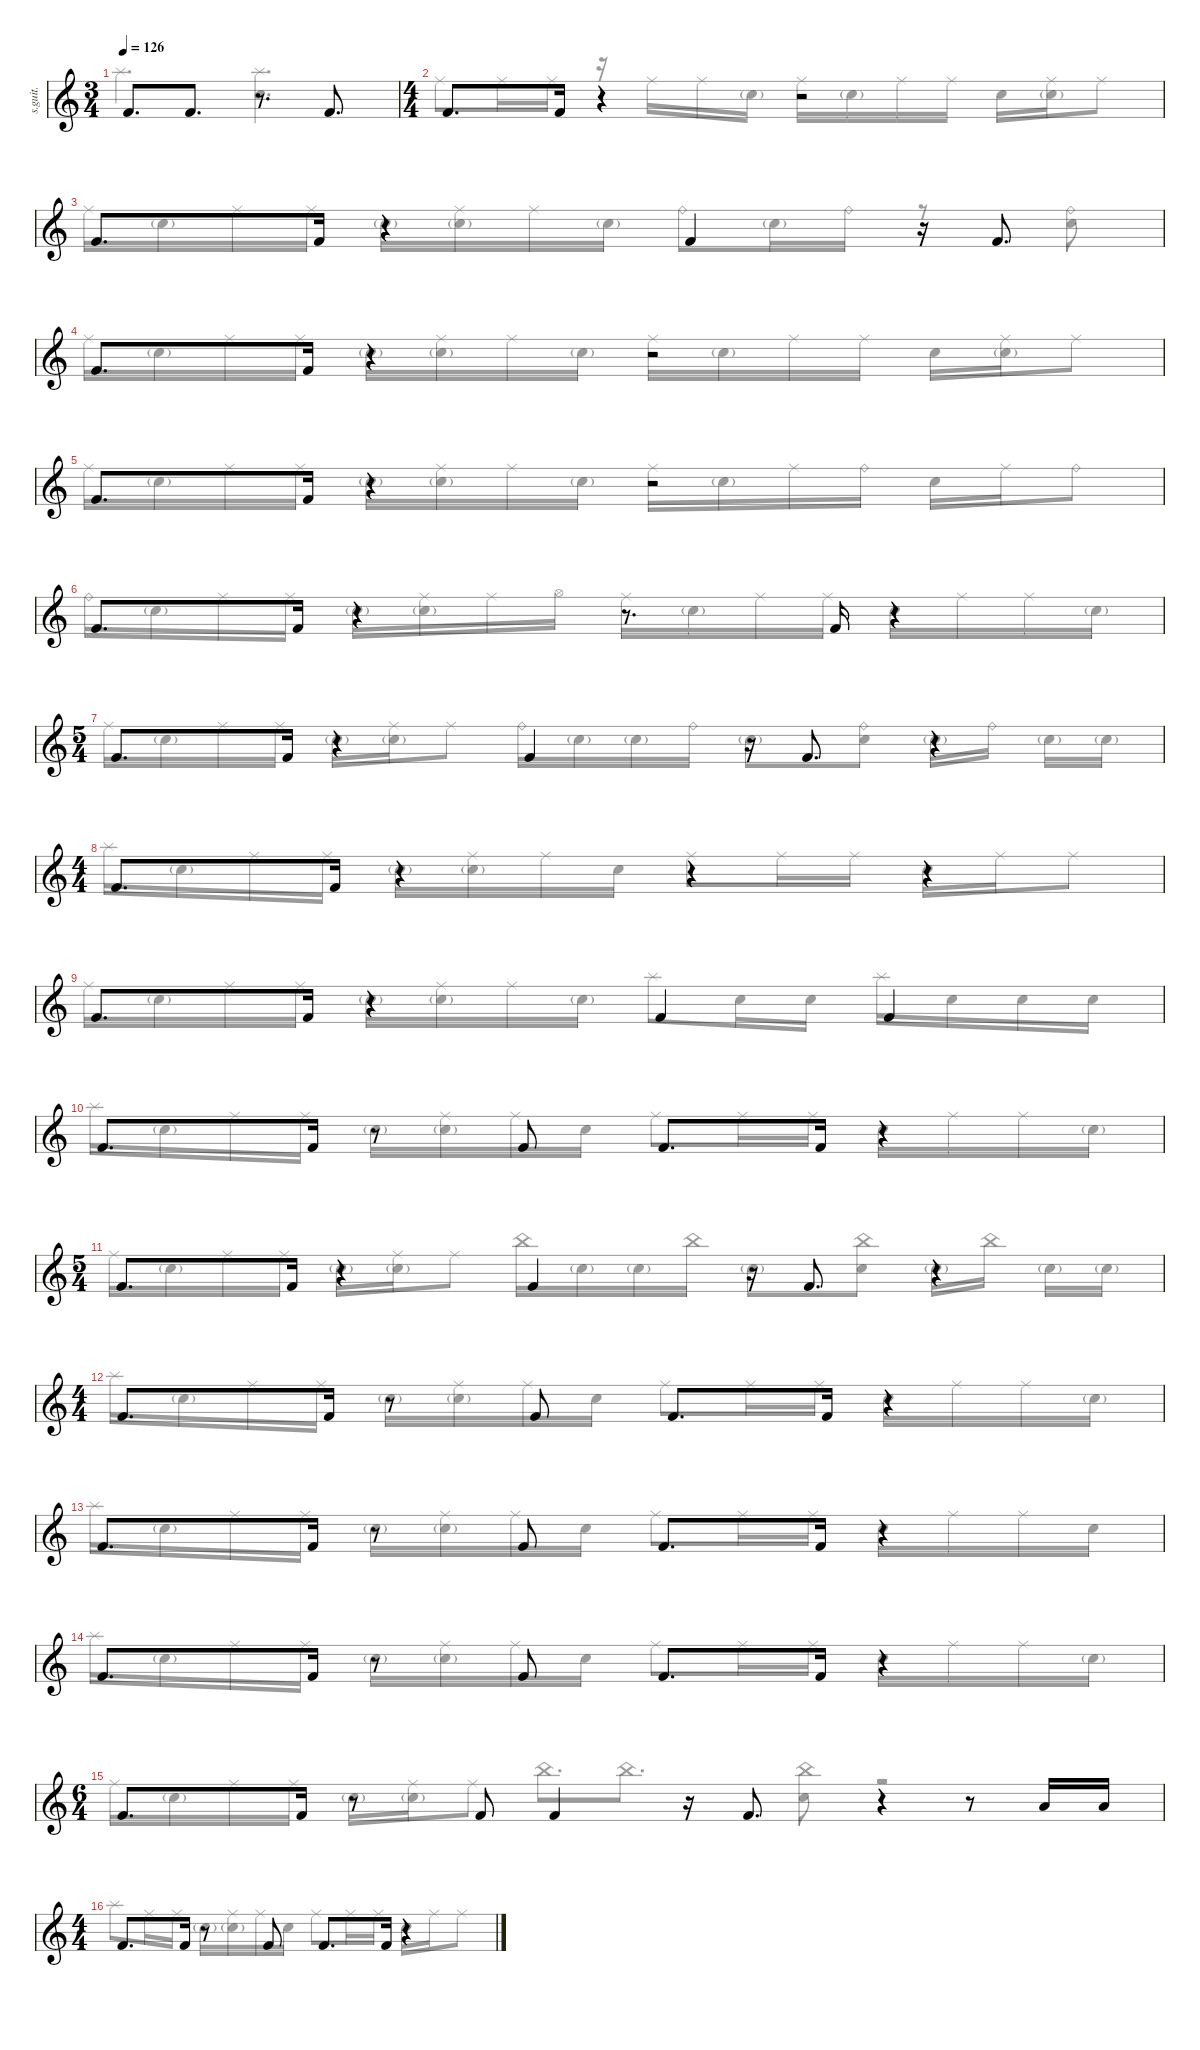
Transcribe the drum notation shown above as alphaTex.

\defaultSystemsLayout 4
\hideDynamics
\bracketExtendMode nobrackets
\track ("Percussion" "s.guit.") {instrument percussion}
\staff {score}
\articulation defaults
\voice
\ts (3 4)
\tempo 126
\clef g2
\ks c "Kick (hit) 2".8{d lyrics (0 "") lyrics (1 "") lyrics (2 "") lyrics (3 "") lyrics (4 "") dy mf} "Kick (hit) 2".8{d lyrics (0 "") lyrics (1 "") lyrics (2 "") lyrics (3 "") lyrics (4 "")}
r.8{d} "Kick (hit) 2".8{d lyrics (0 "") lyrics (1 "") lyrics (2 "") lyrics (3 "") lyrics (4 "")} |
\ts (4 4)
\beaming (8 2 2 2 2)
"Kick (hit) 2".8{d lyrics (0 "") lyrics (1 "") lyrics (2 "") lyrics (3 "") lyrics (4 "")} "Kick (hit) 2".16{lyrics (0 "") lyrics (1 "") lyrics (2 "") lyrics (3 "") lyrics (4 "")} r.4 r.2 |
"Kick (hit) 2".8{d lyrics (0 "") lyrics (1 "") lyrics (2 "") lyrics (3 "") lyrics (4 "")} "Kick (hit) 2".16{lyrics (0 "") lyrics (1 "") lyrics (2 "") lyrics (3 "") lyrics (4 "")} r.4 "Kick (hit) 2".4{lyrics (0 "") lyrics (1 "") lyrics (2 "") lyrics (3 "") lyrics (4 "")} r.16 "Kick (hit) 2".8{d lyrics (0 "") lyrics (1 "") lyrics (2 "") lyrics (3 "") lyrics (4 "")} |
"Kick (hit) 2".8{d lyrics (0 "") lyrics (1 "") lyrics (2 "") lyrics (3 "") lyrics (4 "")} "Kick (hit) 2".16{lyrics (0 "") lyrics (1 "") lyrics (2 "") lyrics (3 "") lyrics (4 "")} r.4 r.2 |
"Kick (hit) 2".8{d lyrics (0 "") lyrics (1 "") lyrics (2 "") lyrics (3 "") lyrics (4 "")} "Kick (hit) 2".16{lyrics (0 "") lyrics (1 "") lyrics (2 "") lyrics (3 "") lyrics (4 "")} r.4 r.2 |
"Kick (hit) 2".8{d lyrics (0 "") lyrics (1 "") lyrics (2 "") lyrics (3 "") lyrics (4 "")} "Kick (hit) 2".16{lyrics (0 "") lyrics (1 "") lyrics (2 "") lyrics (3 "") lyrics (4 "")} r.4 r.8{d} "Kick (hit) 2".16{lyrics (0 "") lyrics (1 "") lyrics (2 "") lyrics (3 "") lyrics (4 "")} r.4 |
\ts (5 4)
\beaming (8 2 2 2 2)
"Kick (hit) 2".8{d lyrics (0 "") lyrics (1 "") lyrics (2 "") lyrics (3 "") lyrics (4 "")} "Kick (hit) 2".16{lyrics (0 "") lyrics (1 "") lyrics (2 "") lyrics (3 "") lyrics (4 "")} r.4 "Kick (hit) 2".4{lyrics (0 "") lyrics (1 "") lyrics (2 "") lyrics (3 "") lyrics (4 "")} r.16 "Kick (hit) 2".8{d lyrics (0 "") lyrics (1 "") lyrics (2 "") lyrics (3 "") lyrics (4 "")} r.4 |
\ts (4 4)
\beaming (8 2 2 2 2)
"Kick (hit) 2".8{d lyrics (0 "") lyrics (1 "") lyrics (2 "") lyrics (3 "") lyrics (4 "")} "Kick (hit) 2".16{lyrics (0 "") lyrics (1 "") lyrics (2 "") lyrics (3 "") lyrics (4 "")} r.4 r.4 r.4 |
"Kick (hit) 2".8{d lyrics (0 "") lyrics (1 "") lyrics (2 "") lyrics (3 "") lyrics (4 "")} "Kick (hit) 2".16{lyrics (0 "") lyrics (1 "") lyrics (2 "") lyrics (3 "") lyrics (4 "")} r.4 "Kick (hit) 2".4{lyrics (0 "") lyrics (1 "") lyrics (2 "") lyrics (3 "") lyrics (4 "")} "Kick (hit) 2".4{lyrics (0 "") lyrics (1 "") lyrics (2 "") lyrics (3 "") lyrics (4 "")} |
"Kick (hit) 2".8{d lyrics (0 "") lyrics (1 "") lyrics (2 "") lyrics (3 "") lyrics (4 "")} "Kick (hit) 2".16{lyrics (0 "") lyrics (1 "") lyrics (2 "") lyrics (3 "") lyrics (4 "")} r.8 "Kick (hit) 2".8{lyrics (0 "") lyrics (1 "") lyrics (2 "") lyrics (3 "") lyrics (4 "")} "Kick (hit) 2".8{d lyrics (0 "") lyrics (1 "") lyrics (2 "") lyrics (3 "") lyrics (4 "")} "Kick (hit) 2".16{lyrics (0 "") lyrics (1 "") lyrics (2 "") lyrics (3 "") lyrics (4 "")} r.4 |
\ts (5 4)
\beaming (8 2 2 2 2)
"Kick (hit) 2".8{d lyrics (0 "") lyrics (1 "") lyrics (2 "") lyrics (3 "") lyrics (4 "")} "Kick (hit) 2".16{lyrics (0 "") lyrics (1 "") lyrics (2 "") lyrics (3 "") lyrics (4 "")} r.4 "Kick (hit) 2".4{lyrics (0 "") lyrics (1 "") lyrics (2 "") lyrics (3 "") lyrics (4 "")} r.16 "Kick (hit) 2".8{d lyrics (0 "") lyrics (1 "") lyrics (2 "") lyrics (3 "") lyrics (4 "")} r.4 |
\ts (4 4)
\beaming (8 2 2 2 2)
"Kick (hit) 2".8{d lyrics (0 "") lyrics (1 "") lyrics (2 "") lyrics (3 "") lyrics (4 "")} "Kick (hit) 2".16{lyrics (0 "") lyrics (1 "") lyrics (2 "") lyrics (3 "") lyrics (4 "")} r.8 "Kick (hit) 2".8{lyrics (0 "") lyrics (1 "") lyrics (2 "") lyrics (3 "") lyrics (4 "")} "Kick (hit) 2".8{d lyrics (0 "") lyrics (1 "") lyrics (2 "") lyrics (3 "") lyrics (4 "")} "Kick (hit) 2".16{lyrics (0 "") lyrics (1 "") lyrics (2 "") lyrics (3 "") lyrics (4 "")} r.4 |
"Kick (hit) 2".8{d lyrics (0 "") lyrics (1 "") lyrics (2 "") lyrics (3 "") lyrics (4 "")} "Kick (hit) 2".16{lyrics (0 "") lyrics (1 "") lyrics (2 "") lyrics (3 "") lyrics (4 "")} r.8 "Kick (hit) 2".8{lyrics (0 "") lyrics (1 "") lyrics (2 "") lyrics (3 "") lyrics (4 "")} "Kick (hit) 2".8{d lyrics (0 "") lyrics (1 "") lyrics (2 "") lyrics (3 "") lyrics (4 "")} "Kick (hit) 2".16{lyrics (0 "") lyrics (1 "") lyrics (2 "") lyrics (3 "") lyrics (4 "")} r.4 |
"Kick (hit) 2".8{d lyrics (0 "") lyrics (1 "") lyrics (2 "") lyrics (3 "") lyrics (4 "")} "Kick (hit) 2".16{lyrics (0 "") lyrics (1 "") lyrics (2 "") lyrics (3 "") lyrics (4 "")} r.8 "Kick (hit) 2".8{lyrics (0 "") lyrics (1 "") lyrics (2 "") lyrics (3 "") lyrics (4 "")} "Kick (hit) 2".8{d lyrics (0 "") lyrics (1 "") lyrics (2 "") lyrics (3 "") lyrics (4 "")} "Kick (hit) 2".16{lyrics (0 "") lyrics (1 "") lyrics (2 "") lyrics (3 "") lyrics (4 "")} r.4 |
\ts (6 4)
\beaming (8 2 2 2 2)
"Kick (hit) 2".8{d lyrics (0 "") lyrics (1 "") lyrics (2 "") lyrics (3 "") lyrics (4 "")} "Kick (hit) 2".16{lyrics (0 "") lyrics (1 "") lyrics (2 "") lyrics (3 "") lyrics (4 "")} r.8 "Kick (hit) 2".8{lyrics (0 "") lyrics (1 "") lyrics (2 "") lyrics (3 "") lyrics (4 "")} "Kick (hit) 2".4{lyrics (0 "") lyrics (1 "") lyrics (2 "") lyrics (3 "") lyrics (4 "")} r.16 "Kick (hit) 2".8{d lyrics (0 "") lyrics (1 "") lyrics (2 "") lyrics (3 "") lyrics (4 "")} r.4 r.8 "Low Tom (hit)".16{lyrics (0 "") lyrics (1 "") lyrics (2 "") lyrics (3 "") lyrics (4 "")} "Low Tom (hit)".16{lyrics (0 "") lyrics (1 "") lyrics (2 "") lyrics (3 "") lyrics (4 "")} |
\ts (4 4)
\beaming (8 2 2 2 2)
"Kick (hit) 2".8{d lyrics (0 "") lyrics (1 "") lyrics (2 "") lyrics (3 "") lyrics (4 "")} "Kick (hit) 2".16{lyrics (0 "") lyrics (1 "") lyrics (2 "") lyrics (3 "") lyrics (4 "")} r.8 "Kick (hit) 2".8{lyrics (0 "") lyrics (1 "") lyrics (2 "") lyrics (3 "") lyrics (4 "")} "Kick (hit) 2".8{d lyrics (0 "") lyrics (1 "") lyrics (2 "") lyrics (3 "") lyrics (4 "")} "Kick (hit) 2".16{lyrics (0 "") lyrics (1 "") lyrics (2 "") lyrics (3 "") lyrics (4 "")} r.4
\voice
\clef g2
\ottava regular
\simile none
\ks c "Splash (hit)".4{d lyrics (0 "") lyrics (1 "") lyrics (2 "") lyrics (3 "") lyrics (4 "") dy mf}
("Splash (hit)" "Snare (hit) 2").4{d lyrics (0 "") lyrics (1 "") lyrics (2 "") lyrics (3 "") lyrics (4 "")} |
"Ride (middle)".8{lyrics (0 "") lyrics (1 "") lyrics (2 "") lyrics (3 "") lyrics (4 "")} "Ride (middle)".16{lyrics (0 "") lyrics (1 "") lyrics (2 "") lyrics (3 "") lyrics (4 "")} "Ride (middle)".16{lyrics (0 "") lyrics (1 "") lyrics (2 "") lyrics (3 "") lyrics (4 "")} r.16 "Ride (middle)".16{lyrics (0 "") lyrics (1 "") lyrics (2 "") lyrics (3 "") lyrics (4 "")} "Ride (middle)".16{lyrics (0 "") lyrics (1 "") lyrics (2 "") lyrics (3 "") lyrics (4 "")} "Snare (hit) 2"{g}.16{lyrics (0 "") lyrics (1 "") lyrics (2 "") lyrics (3 "") lyrics (4 "")} "Ride (middle)".16{lyrics (0 "") lyrics (1 "") lyrics (2 "") lyrics (3 "") lyrics (4 "")} "Snare (hit) 2"{g}.16{lyrics (0 "") lyrics (1 "") lyrics (2 "") lyrics (3 "") lyrics (4 "")} "Ride (middle)".16{lyrics (0 "") lyrics (1 "") lyrics (2 "") lyrics (3 "") lyrics (4 "")} "Ride (middle)".16{lyrics (0 "") lyrics (1 "") lyrics (2 "") lyrics (3 "") lyrics (4 "")} "Snare (hit) 2".16{lyrics (0 "") lyrics (1 "") lyrics (2 "") lyrics (3 "") lyrics (4 "")} ("Ride (middle)" "Snare (hit) 2"{g}).16{lyrics (0 "") lyrics (1 "") lyrics (2 "") lyrics (3 "") lyrics (4 "")} "Ride (middle)".8{lyrics (0 "") lyrics (1 "") lyrics (2 "") lyrics (3 "") lyrics (4 "")} |
"Ride (middle)".16{lyrics (0 "") lyrics (1 "") lyrics (2 "") lyrics (3 "") lyrics (4 "")} "Snare (hit) 2"{g}.16{lyrics (0 "") lyrics (1 "") lyrics (2 "") lyrics (3 "") lyrics (4 "")} "Ride (middle)".16{lyrics (0 "") lyrics (1 "") lyrics (2 "") lyrics (3 "") lyrics (4 "")} "Ride (middle)".16{lyrics (0 "") lyrics (1 "") lyrics (2 "") lyrics (3 "") lyrics (4 "")} "Snare (hit) 2"{g}.16{lyrics (0 "") lyrics (1 "") lyrics (2 "") lyrics (3 "") lyrics (4 "")} ("Ride (middle)" "Snare (hit) 2"{g}).16{lyrics (0 "") lyrics (1 "") lyrics (2 "") lyrics (3 "") lyrics (4 "")} "Ride (middle)".16{lyrics (0 "") lyrics (1 "") lyrics (2 "") lyrics (3 "") lyrics (4 "")} "Snare (hit) 2"{g}.16{lyrics (0 "") lyrics (1 "") lyrics (2 "") lyrics (3 "") lyrics (4 "")} "Ride (bell)".8{lyrics (0 "") lyrics (1 "") lyrics (2 "") lyrics (3 "") lyrics (4 "")} "Snare (hit) 2"{g}.16{lyrics (0 "") lyrics (1 "") lyrics (2 "") lyrics (3 "") lyrics (4 "")} "Ride (bell)".16{lyrics (0 "") lyrics (1 "") lyrics (2 "") lyrics (3 "") lyrics (4 "")} r.8 ("Ride (bell)" "Snare (hit) 2").8{lyrics (0 "") lyrics (1 "") lyrics (2 "") lyrics (3 "") lyrics (4 "")} |
"Ride (middle)".16{lyrics (0 "") lyrics (1 "") lyrics (2 "") lyrics (3 "") lyrics (4 "")} "Snare (hit) 2"{g}.16{lyrics (0 "") lyrics (1 "") lyrics (2 "") lyrics (3 "") lyrics (4 "")} "Ride (middle)".16{lyrics (0 "") lyrics (1 "") lyrics (2 "") lyrics (3 "") lyrics (4 "")} "Ride (middle)".16{lyrics (0 "") lyrics (1 "") lyrics (2 "") lyrics (3 "") lyrics (4 "")} "Snare (hit) 2"{g}.16{lyrics (0 "") lyrics (1 "") lyrics (2 "") lyrics (3 "") lyrics (4 "")} ("Ride (middle)" "Snare (hit) 2"{g}).16{lyrics (0 "") lyrics (1 "") lyrics (2 "") lyrics (3 "") lyrics (4 "")} "Ride (middle)".16{lyrics (0 "") lyrics (1 "") lyrics (2 "") lyrics (3 "") lyrics (4 "")} "Snare (hit) 2"{g}.16{lyrics (0 "") lyrics (1 "") lyrics (2 "") lyrics (3 "") lyrics (4 "")} "Ride (middle)".16{lyrics (0 "") lyrics (1 "") lyrics (2 "") lyrics (3 "") lyrics (4 "")} "Snare (hit) 2"{g}.16{lyrics (0 "") lyrics (1 "") lyrics (2 "") lyrics (3 "") lyrics (4 "")} "Ride (middle)".16{lyrics (0 "") lyrics (1 "") lyrics (2 "") lyrics (3 "") lyrics (4 "")} "Ride (middle)".16{lyrics (0 "") lyrics (1 "") lyrics (2 "") lyrics (3 "") lyrics (4 "")} "Snare (hit) 2".16{lyrics (0 "") lyrics (1 "") lyrics (2 "") lyrics (3 "") lyrics (4 "")} ("Ride (middle)" "Snare (hit) 2"{g}).16{lyrics (0 "") lyrics (1 "") lyrics (2 "") lyrics (3 "") lyrics (4 "")} "Ride (middle)".8{lyrics (0 "") lyrics (1 "") lyrics (2 "") lyrics (3 "") lyrics (4 "")} |
"Ride (middle)".16{lyrics (0 "") lyrics (1 "") lyrics (2 "") lyrics (3 "") lyrics (4 "")} "Snare (hit) 2"{g}.16{lyrics (0 "") lyrics (1 "") lyrics (2 "") lyrics (3 "") lyrics (4 "")} "Ride (middle)".16{lyrics (0 "") lyrics (1 "") lyrics (2 "") lyrics (3 "") lyrics (4 "")} "Ride (middle)".16{lyrics (0 "") lyrics (1 "") lyrics (2 "") lyrics (3 "") lyrics (4 "")} "Snare (hit) 2"{g}.16{lyrics (0 "") lyrics (1 "") lyrics (2 "") lyrics (3 "") lyrics (4 "")} ("Ride (middle)" "Snare (hit) 2"{g}).16{lyrics (0 "") lyrics (1 "") lyrics (2 "") lyrics (3 "") lyrics (4 "")} "Ride (middle)".16{lyrics (0 "") lyrics (1 "") lyrics (2 "") lyrics (3 "") lyrics (4 "")} "Snare (hit) 2"{g}.16{lyrics (0 "") lyrics (1 "") lyrics (2 "") lyrics (3 "") lyrics (4 "")} "Ride (middle)".16{lyrics (0 "") lyrics (1 "") lyrics (2 "") lyrics (3 "") lyrics (4 "")} "Snare (hit) 2"{g}.16{lyrics (0 "") lyrics (1 "") lyrics (2 "") lyrics (3 "") lyrics (4 "")} "Ride (middle)".16{lyrics (0 "") lyrics (1 "") lyrics (2 "") lyrics (3 "") lyrics (4 "")} "Ride (bell)".16{lyrics (0 "") lyrics (1 "") lyrics (2 "") lyrics (3 "") lyrics (4 "")} "Snare (hit) 2".16{lyrics (0 "") lyrics (1 "") lyrics (2 "") lyrics (3 "") lyrics (4 "")} "Ride (middle)".16{lyrics (0 "") lyrics (1 "") lyrics (2 "") lyrics (3 "") lyrics (4 "")} "Ride (bell)".8{lyrics (0 "") lyrics (1 "") lyrics (2 "") lyrics (3 "") lyrics (4 "")} |
"Ride (bell)".16{lyrics (0 "") lyrics (1 "") lyrics (2 "") lyrics (3 "") lyrics (4 "")} "Snare (hit) 2"{g}.16{lyrics (0 "") lyrics (1 "") lyrics (2 "") lyrics (3 "") lyrics (4 "")} "Ride (middle)".16{lyrics (0 "") lyrics (1 "") lyrics (2 "") lyrics (3 "") lyrics (4 "")} "Ride (middle)".16{lyrics (0 "") lyrics (1 "") lyrics (2 "") lyrics (3 "") lyrics (4 "")} "Snare (hit) 2"{g}.16{lyrics (0 "") lyrics (1 "") lyrics (2 "") lyrics (3 "") lyrics (4 "")} ("Snare (hit) 2"{g} "Ride (middle)").16{lyrics (0 "") lyrics (1 "") lyrics (2 "") lyrics (3 "") lyrics (4 "")} "Ride (middle)".16{lyrics (0 "") lyrics (1 "") lyrics (2 "") lyrics (3 "") lyrics (4 "")} "Hi-Hat (open)".16{lyrics (0 "") lyrics (1 "") lyrics (2 "") lyrics (3 "") lyrics (4 "")} "Ride (middle)".16{lyrics (0 "") lyrics (1 "") lyrics (2 "") lyrics (3 "") lyrics (4 "")} "Snare (hit) 2"{g}.16{lyrics (0 "") lyrics (1 "") lyrics (2 "") lyrics (3 "") lyrics (4 "")} "Ride (middle)".16{lyrics (0 "") lyrics (1 "") lyrics (2 "") lyrics (3 "") lyrics (4 "")} "Ride (middle)".16{lyrics (0 "") lyrics (1 "") lyrics (2 "") lyrics (3 "") lyrics (4 "")} "Snare (hit) 2".16{lyrics (0 "") lyrics (1 "") lyrics (2 "") lyrics (3 "") lyrics (4 "")} "Ride (middle)".16{lyrics (0 "") lyrics (1 "") lyrics (2 "") lyrics (3 "") lyrics (4 "")} "Ride (middle)".16{lyrics (0 "") lyrics (1 "") lyrics (2 "") lyrics (3 "") lyrics (4 "")} "Snare (hit) 2"{g}.16{lyrics (0 "") lyrics (1 "") lyrics (2 "") lyrics (3 "") lyrics (4 "")} |
"Ride (middle)".16{lyrics (0 "") lyrics (1 "") lyrics (2 "") lyrics (3 "") lyrics (4 "")} "Snare (hit) 2"{g}.16{lyrics (0 "") lyrics (1 "") lyrics (2 "") lyrics (3 "") lyrics (4 "")} "Ride (middle)".16{lyrics (0 "") lyrics (1 "") lyrics (2 "") lyrics (3 "") lyrics (4 "")} "Ride (middle)".16{lyrics (0 "") lyrics (1 "") lyrics (2 "") lyrics (3 "") lyrics (4 "")} "Snare (hit) 2"{g}.16{lyrics (0 "") lyrics (1 "") lyrics (2 "") lyrics (3 "") lyrics (4 "")} ("Ride (middle)" "Snare (hit) 2"{g}).16{lyrics (0 "") lyrics (1 "") lyrics (2 "") lyrics (3 "") lyrics (4 "")} "Ride (middle)".8{lyrics (0 "") lyrics (1 "") lyrics (2 "") lyrics (3 "") lyrics (4 "")} "Ride (bell)".16{lyrics (0 "") lyrics (1 "") lyrics (2 "") lyrics (3 "") lyrics (4 "")} "Snare (hit) 2"{g}.16{lyrics (0 "") lyrics (1 "") lyrics (2 "") lyrics (3 "") lyrics (4 "")} "Snare (hit) 2"{g}.16{lyrics (0 "") lyrics (1 "") lyrics (2 "") lyrics (3 "") lyrics (4 "")} "Ride (bell)".16{lyrics (0 "") lyrics (1 "") lyrics (2 "") lyrics (3 "") lyrics (4 "")} "Snare (hit) 2"{g}.8{lyrics (0 "") lyrics (1 "") lyrics (2 "") lyrics (3 "") lyrics (4 "")} ("Ride (bell)" "Snare (hit) 2").8{lyrics (0 "") lyrics (1 "") lyrics (2 "") lyrics (3 "") lyrics (4 "")} "Snare (hit) 2"{g}.16{lyrics (0 "") lyrics (1 "") lyrics (2 "") lyrics (3 "") lyrics (4 "")} "Ride (bell)".16{lyrics (0 "") lyrics (1 "") lyrics (2 "") lyrics (3 "") lyrics (4 "")} "Snare (hit) 2"{g}.16{lyrics (0 "") lyrics (1 "") lyrics (2 "") lyrics (3 "") lyrics (4 "")} "Snare (hit) 2"{g}.16{lyrics (0 "") lyrics (1 "") lyrics (2 "") lyrics (3 "") lyrics (4 "")} |
"Splash (hit)".16{lyrics (0 "") lyrics (1 "") lyrics (2 "") lyrics (3 "") lyrics (4 "")} "Snare (hit) 2"{g}.16{lyrics (0 "") lyrics (1 "") lyrics (2 "") lyrics (3 "") lyrics (4 "")} "Ride (middle)".16{lyrics (0 "") lyrics (1 "") lyrics (2 "") lyrics (3 "") lyrics (4 "")} "Ride (middle)".16{lyrics (0 "") lyrics (1 "") lyrics (2 "") lyrics (3 "") lyrics (4 "")} "Snare (hit) 2"{g}.16{lyrics (0 "") lyrics (1 "") lyrics (2 "") lyrics (3 "") lyrics (4 "")} ("Ride (middle)" "Snare (hit) 2"{g}).16{lyrics (0 "") lyrics (1 "") lyrics (2 "") lyrics (3 "") lyrics (4 "")} "Ride (middle)".16{lyrics (0 "") lyrics (1 "") lyrics (2 "") lyrics (3 "") lyrics (4 "")} "Snare (hit) 2".16{lyrics (0 "") lyrics (1 "") lyrics (2 "") lyrics (3 "") lyrics (4 "")} "Ride (middle)".8{lyrics (0 "") lyrics (1 "") lyrics (2 "") lyrics (3 "") lyrics (4 "")} "Ride (middle)".16{lyrics (0 "") lyrics (1 "") lyrics (2 "") lyrics (3 "") lyrics (4 "")} "Ride (middle)".16{lyrics (0 "") lyrics (1 "") lyrics (2 "") lyrics (3 "") lyrics (4 "")} "Snare (hit) 2".16{lyrics (0 "") lyrics (1 "") lyrics (2 "") lyrics (3 "") lyrics (4 "")} "Ride (middle)".16{lyrics (0 "") lyrics (1 "") lyrics (2 "") lyrics (3 "") lyrics (4 "")} "Ride (middle)".8{lyrics (0 "") lyrics (1 "") lyrics (2 "") lyrics (3 "") lyrics (4 "")} |
"Ride (middle)".16{lyrics (0 "") lyrics (1 "") lyrics (2 "") lyrics (3 "") lyrics (4 "")} "Snare (hit) 2"{g}.16{lyrics (0 "") lyrics (1 "") lyrics (2 "") lyrics (3 "") lyrics (4 "")} "Ride (middle)".16{lyrics (0 "") lyrics (1 "") lyrics (2 "") lyrics (3 "") lyrics (4 "")} "Ride (middle)".16{lyrics (0 "") lyrics (1 "") lyrics (2 "") lyrics (3 "") lyrics (4 "")} "Snare (hit) 2"{g}.16{lyrics (0 "") lyrics (1 "") lyrics (2 "") lyrics (3 "") lyrics (4 "")} ("Ride (middle)" "Snare (hit) 2"{g}).16{lyrics (0 "") lyrics (1 "") lyrics (2 "") lyrics (3 "") lyrics (4 "")} "Ride (middle)".16{lyrics (0 "") lyrics (1 "") lyrics (2 "") lyrics (3 "") lyrics (4 "")} "Snare (hit) 2"{g}.16{lyrics (0 "") lyrics (1 "") lyrics (2 "") lyrics (3 "") lyrics (4 "")} "Splash (hit)".8{lyrics (0 "") lyrics (1 "") lyrics (2 "") lyrics (3 "") lyrics (4 "")} "Snare (hit) 2".16{lyrics (0 "") lyrics (1 "") lyrics (2 "") lyrics (3 "") lyrics (4 "")} "Snare (hit) 2".16{lyrics (0 "") lyrics (1 "") lyrics (2 "") lyrics (3 "") lyrics (4 "")} "Splash (hit)".16{lyrics (0 "") lyrics (1 "") lyrics (2 "") lyrics (3 "") lyrics (4 "")} "Snare (hit) 2".16{lyrics (0 "") lyrics (1 "") lyrics (2 "") lyrics (3 "") lyrics (4 "")} "Snare (hit) 2".16{lyrics (0 "") lyrics (1 "") lyrics (2 "") lyrics (3 "") lyrics (4 "")} "Snare (hit) 2".16{lyrics (0 "") lyrics (1 "") lyrics (2 "") lyrics (3 "") lyrics (4 "")} |
"Splash (hit)".16{lyrics (0 "") lyrics (1 "") lyrics (2 "") lyrics (3 "") lyrics (4 "")} "Snare (hit) 2"{g}.16{lyrics (0 "") lyrics (1 "") lyrics (2 "") lyrics (3 "") lyrics (4 "")} "Ride (middle)".16{lyrics (0 "") lyrics (1 "") lyrics (2 "") lyrics (3 "") lyrics (4 "")} "Ride (middle)".16{lyrics (0 "") lyrics (1 "") lyrics (2 "") lyrics (3 "") lyrics (4 "")} "Snare (hit) 2"{g}.16{lyrics (0 "") lyrics (1 "") lyrics (2 "") lyrics (3 "") lyrics (4 "")} ("Ride (middle)" "Snare (hit) 2"{g}).16{lyrics (0 "") lyrics (1 "") lyrics (2 "") lyrics (3 "") lyrics (4 "")} "Ride (middle)".16{lyrics (0 "") lyrics (1 "") lyrics (2 "") lyrics (3 "") lyrics (4 "")} "Snare (hit) 2".16{lyrics (0 "") lyrics (1 "") lyrics (2 "") lyrics (3 "") lyrics (4 "")} "Ride (middle)".8{lyrics (0 "") lyrics (1 "") lyrics (2 "") lyrics (3 "") lyrics (4 "")} "Ride (middle)".16{lyrics (0 "") lyrics (1 "") lyrics (2 "") lyrics (3 "") lyrics (4 "")} "Ride (middle)".16{lyrics (0 "") lyrics (1 "") lyrics (2 "") lyrics (3 "") lyrics (4 "")} "Snare (hit) 2".16{lyrics (0 "") lyrics (1 "") lyrics (2 "") lyrics (3 "") lyrics (4 "")} "Ride (middle)".16{lyrics (0 "") lyrics (1 "") lyrics (2 "") lyrics (3 "") lyrics (4 "")} "Ride (middle)".16{lyrics (0 "") lyrics (1 "") lyrics (2 "") lyrics (3 "") lyrics (4 "")} "Snare (hit) 2"{g}.16{lyrics (0 "") lyrics (1 "") lyrics (2 "") lyrics (3 "") lyrics (4 "")} |
"Ride (middle)".16{lyrics (0 "") lyrics (1 "") lyrics (2 "") lyrics (3 "") lyrics (4 "")} "Snare (hit) 2"{g}.16{lyrics (0 "") lyrics (1 "") lyrics (2 "") lyrics (3 "") lyrics (4 "")} "Ride (middle)".16{lyrics (0 "") lyrics (1 "") lyrics (2 "") lyrics (3 "") lyrics (4 "")} "Ride (middle)".16{lyrics (0 "") lyrics (1 "") lyrics (2 "") lyrics (3 "") lyrics (4 "")} "Snare (hit) 2"{g}.16{lyrics (0 "") lyrics (1 "") lyrics (2 "") lyrics (3 "") lyrics (4 "")} ("Ride (middle)" "Snare (hit) 2"{g}).16{lyrics (0 "") lyrics (1 "") lyrics (2 "") lyrics (3 "") lyrics (4 "")} "Ride (middle)".8{lyrics (0 "") lyrics (1 "") lyrics (2 "") lyrics (3 "") lyrics (4 "")} "China (hit)".16{lyrics (0 "") lyrics (1 "") lyrics (2 "") lyrics (3 "") lyrics (4 "")} "Snare (hit) 2"{g}.16{lyrics (0 "") lyrics (1 "") lyrics (2 "") lyrics (3 "") lyrics (4 "")} "Snare (hit) 2"{g}.16{lyrics (0 "") lyrics (1 "") lyrics (2 "") lyrics (3 "") lyrics (4 "")} "China (hit)".16{lyrics (0 "") lyrics (1 "") lyrics (2 "") lyrics (3 "") lyrics (4 "")} "Snare (hit) 2"{g}.8{lyrics (0 "") lyrics (1 "") lyrics (2 "") lyrics (3 "") lyrics (4 "")} ("China (hit)" "Snare (hit) 2").8{lyrics (0 "") lyrics (1 "") lyrics (2 "") lyrics (3 "") lyrics (4 "")} "Snare (hit) 2"{g}.16{lyrics (0 "") lyrics (1 "") lyrics (2 "") lyrics (3 "") lyrics (4 "")} "China (hit)".16{lyrics (0 "") lyrics (1 "") lyrics (2 "") lyrics (3 "") lyrics (4 "")} "Snare (hit) 2"{g}.16{lyrics (0 "") lyrics (1 "") lyrics (2 "") lyrics (3 "") lyrics (4 "")} "Snare (hit) 2"{g}.16{lyrics (0 "") lyrics (1 "") lyrics (2 "") lyrics (3 "") lyrics (4 "")} |
"Splash (hit)".16{lyrics (0 "") lyrics (1 "") lyrics (2 "") lyrics (3 "") lyrics (4 "")} "Snare (hit) 2"{g}.16{lyrics (0 "") lyrics (1 "") lyrics (2 "") lyrics (3 "") lyrics (4 "")} "Ride (middle)".16{lyrics (0 "") lyrics (1 "") lyrics (2 "") lyrics (3 "") lyrics (4 "")} "Ride (middle)".16{lyrics (0 "") lyrics (1 "") lyrics (2 "") lyrics (3 "") lyrics (4 "")} "Snare (hit) 2"{g}.16{lyrics (0 "") lyrics (1 "") lyrics (2 "") lyrics (3 "") lyrics (4 "")} ("Ride (middle)" "Snare (hit) 2"{g}).16{lyrics (0 "") lyrics (1 "") lyrics (2 "") lyrics (3 "") lyrics (4 "")} "Ride (middle)".16{lyrics (0 "") lyrics (1 "") lyrics (2 "") lyrics (3 "") lyrics (4 "")} "Snare (hit) 2".16{lyrics (0 "") lyrics (1 "") lyrics (2 "") lyrics (3 "") lyrics (4 "")} "Ride (middle)".8{lyrics (0 "") lyrics (1 "") lyrics (2 "") lyrics (3 "") lyrics (4 "")} "Ride (middle)".16{lyrics (0 "") lyrics (1 "") lyrics (2 "") lyrics (3 "") lyrics (4 "")} "Ride (middle)".16{lyrics (0 "") lyrics (1 "") lyrics (2 "") lyrics (3 "") lyrics (4 "")} "Snare (hit) 2".16{lyrics (0 "") lyrics (1 "") lyrics (2 "") lyrics (3 "") lyrics (4 "")} "Ride (middle)".16{lyrics (0 "") lyrics (1 "") lyrics (2 "") lyrics (3 "") lyrics (4 "")} "Ride (middle)".16{lyrics (0 "") lyrics (1 "") lyrics (2 "") lyrics (3 "") lyrics (4 "")} "Snare (hit) 2"{g}.16{lyrics (0 "") lyrics (1 "") lyrics (2 "") lyrics (3 "") lyrics (4 "")} |
"Splash (hit)".16{lyrics (0 "") lyrics (1 "") lyrics (2 "") lyrics (3 "") lyrics (4 "")} "Snare (hit) 2"{g}.16{lyrics (0 "") lyrics (1 "") lyrics (2 "") lyrics (3 "") lyrics (4 "")} "Ride (middle)".16{lyrics (0 "") lyrics (1 "") lyrics (2 "") lyrics (3 "") lyrics (4 "")} "Ride (middle)".16{lyrics (0 "") lyrics (1 "") lyrics (2 "") lyrics (3 "") lyrics (4 "")} "Snare (hit) 2"{g}.16{lyrics (0 "") lyrics (1 "") lyrics (2 "") lyrics (3 "") lyrics (4 "")} ("Ride (middle)" "Snare (hit) 2"{g}).16{lyrics (0 "") lyrics (1 "") lyrics (2 "") lyrics (3 "") lyrics (4 "")} "Ride (middle)".16{lyrics (0 "") lyrics (1 "") lyrics (2 "") lyrics (3 "") lyrics (4 "")} "Snare (hit) 2".16{lyrics (0 "") lyrics (1 "") lyrics (2 "") lyrics (3 "") lyrics (4 "")} "Ride (middle)".8{lyrics (0 "") lyrics (1 "") lyrics (2 "") lyrics (3 "") lyrics (4 "")} "Ride (middle)".16{lyrics (0 "") lyrics (1 "") lyrics (2 "") lyrics (3 "") lyrics (4 "")} "Ride (middle)".16{lyrics (0 "") lyrics (1 "") lyrics (2 "") lyrics (3 "") lyrics (4 "")} "Snare (hit) 2".16{lyrics (0 "") lyrics (1 "") lyrics (2 "") lyrics (3 "") lyrics (4 "")} "Ride (middle)".16{lyrics (0 "") lyrics (1 "") lyrics (2 "") lyrics (3 "") lyrics (4 "")} "Ride (middle)".16{lyrics (0 "") lyrics (1 "") lyrics (2 "") lyrics (3 "") lyrics (4 "")} "Snare (hit) 2".16{lyrics (0 "") lyrics (1 "") lyrics (2 "") lyrics (3 "") lyrics (4 "")} |
"Splash (hit)".16{lyrics (0 "") lyrics (1 "") lyrics (2 "") lyrics (3 "") lyrics (4 "")} "Snare (hit) 2"{g}.16{lyrics (0 "") lyrics (1 "") lyrics (2 "") lyrics (3 "") lyrics (4 "")} "Ride (middle)".16{lyrics (0 "") lyrics (1 "") lyrics (2 "") lyrics (3 "") lyrics (4 "")} "Ride (middle)".16{lyrics (0 "") lyrics (1 "") lyrics (2 "") lyrics (3 "") lyrics (4 "")} "Snare (hit) 2"{g}.16{lyrics (0 "") lyrics (1 "") lyrics (2 "") lyrics (3 "") lyrics (4 "")} ("Ride (middle)" "Snare (hit) 2"{g}).16{lyrics (0 "") lyrics (1 "") lyrics (2 "") lyrics (3 "") lyrics (4 "")} "Ride (middle)".16{lyrics (0 "") lyrics (1 "") lyrics (2 "") lyrics (3 "") lyrics (4 "")} "Snare (hit) 2".16{lyrics (0 "") lyrics (1 "") lyrics (2 "") lyrics (3 "") lyrics (4 "")} "Ride (middle)".8{lyrics (0 "") lyrics (1 "") lyrics (2 "") lyrics (3 "") lyrics (4 "")} "Ride (middle)".16{lyrics (0 "") lyrics (1 "") lyrics (2 "") lyrics (3 "") lyrics (4 "")} "Ride (middle)".16{lyrics (0 "") lyrics (1 "") lyrics (2 "") lyrics (3 "") lyrics (4 "")} "Snare (hit) 2".16{lyrics (0 "") lyrics (1 "") lyrics (2 "") lyrics (3 "") lyrics (4 "")} "Ride (middle)".16{lyrics (0 "") lyrics (1 "") lyrics (2 "") lyrics (3 "") lyrics (4 "")} "Ride (middle)".16{lyrics (0 "") lyrics (1 "") lyrics (2 "") lyrics (3 "") lyrics (4 "")} "Snare (hit) 2"{g}.16{lyrics (0 "") lyrics (1 "") lyrics (2 "") lyrics (3 "") lyrics (4 "")} |
"Ride (middle)".16{lyrics (0 "") lyrics (1 "") lyrics (2 "") lyrics (3 "") lyrics (4 "")} "Snare (hit) 2"{g}.16{lyrics (0 "") lyrics (1 "") lyrics (2 "") lyrics (3 "") lyrics (4 "")} "Ride (middle)".16{lyrics (0 "") lyrics (1 "") lyrics (2 "") lyrics (3 "") lyrics (4 "")} "Ride (middle)".16{lyrics (0 "") lyrics (1 "") lyrics (2 "") lyrics (3 "") lyrics (4 "")} "Snare (hit) 2"{g}.16{lyrics (0 "") lyrics (1 "") lyrics (2 "") lyrics (3 "") lyrics (4 "")} ("Ride (middle)" "Snare (hit) 2"{g}).16{lyrics (0 "") lyrics (1 "") lyrics (2 "") lyrics (3 "") lyrics (4 "")} "Ride (middle)".8{lyrics (0 "") lyrics (1 "") lyrics (2 "") lyrics (3 "") lyrics (4 "")} "China (hit)".8{d lyrics (0 "") lyrics (1 "") lyrics (2 "") lyrics (3 "") lyrics (4 "")} "China (hit)".8{d lyrics (0 "") lyrics (1 "") lyrics (2 "") lyrics (3 "") lyrics (4 "")} ("China (hit)" "Snare (hit) 2").8{lyrics (0 "") lyrics (1 "") lyrics (2 "") lyrics (3 "") lyrics (4 "")} r.2 |
"Splash (hit)".8{lyrics (0 "") lyrics (1 "") lyrics (2 "") lyrics (3 "") lyrics (4 "")} "Ride (middle)".16{lyrics (0 "") lyrics (1 "") lyrics (2 "") lyrics (3 "") lyrics (4 "")} "Ride (middle)".16{lyrics (0 "") lyrics (1 "") lyrics (2 "") lyrics (3 "") lyrics (4 "")} "Snare (hit) 2"{g}.16{lyrics (0 "") lyrics (1 "") lyrics (2 "") lyrics (3 "") lyrics (4 "")} ("Ride (middle)" "Snare (hit) 2"{g}).16{lyrics (0 "") lyrics (1 "") lyrics (2 "") lyrics (3 "") lyrics (4 "")} "Ride (middle)".16{lyrics (0 "") lyrics (1 "") lyrics (2 "") lyrics (3 "") lyrics (4 "")} "Snare (hit) 2".16{lyrics (0 "") lyrics (1 "") lyrics (2 "") lyrics (3 "") lyrics (4 "")} "Ride (middle)".8{lyrics (0 "") lyrics (1 "") lyrics (2 "") lyrics (3 "") lyrics (4 "")} "Ride (middle)".16{lyrics (0 "") lyrics (1 "") lyrics (2 "") lyrics (3 "") lyrics (4 "")} "Ride (middle)".16{lyrics (0 "") lyrics (1 "") lyrics (2 "") lyrics (3 "") lyrics (4 "")} "Snare (hit) 2".16{lyrics (0 "") lyrics (1 "") lyrics (2 "") lyrics (3 "") lyrics (4 "")} "Ride (middle)".16{lyrics (0 "") lyrics (1 "") lyrics (2 "") lyrics (3 "") lyrics (4 "")} "Ride (middle)".8{lyrics (0 "") lyrics (1 "") lyrics (2 "") lyrics (3 "") lyrics (4 "")}
